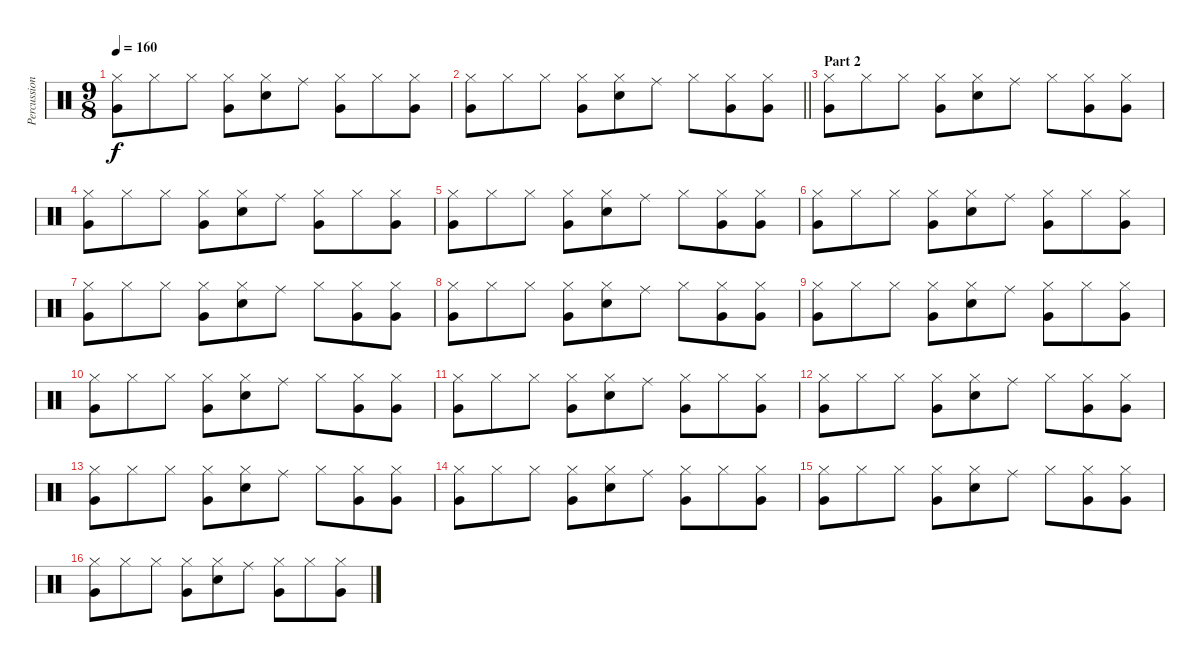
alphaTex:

\track ("Percussions" "Percussion") {instrument percussion}
\staff {score}
\articulation defaults
\ts (9 8)
\tempo 160
\clef neutral
\ks c
("Hi-Hat (closed)" "Very Low Tom (hit)").8{dy f} "Hi-Hat (closed)".8 "Hi-Hat (closed)".8 ("Hi-Hat (closed)" "Very Low Tom (hit)").8 ("Hi-Hat (closed)" "Snare (hit) 2").8 "Ride (middle)".8 ("Hi-Hat (closed)" "Very Low Tom (hit)").8 "Hi-Hat (closed)".8 ("Hi-Hat (closed)" "Very Low Tom (hit)").8 |
\barLineRight lightlight
("Hi-Hat (closed)" "Very Low Tom (hit)").8 "Hi-Hat (closed)".8 "Hi-Hat (closed)".8 ("Hi-Hat (closed)" "Very Low Tom (hit)").8 ("Hi-Hat (closed)" "Snare (hit) 2").8 "Ride (middle)".8 "Hi-Hat (closed)".8 ("Hi-Hat (closed)" "Very Low Tom (hit)").8 ("Hi-Hat (closed)" "Very Low Tom (hit)").8 |
\section ("" "Part 2")
("Hi-Hat (closed)" "Very Low Tom (hit)").8 "Hi-Hat (closed)".8 "Hi-Hat (closed)".8 ("Hi-Hat (closed)" "Very Low Tom (hit)").8 ("Hi-Hat (closed)" "Snare (hit) 2").8 "Ride (middle)".8 "Hi-Hat (closed)".8 ("Hi-Hat (closed)" "Very Low Tom (hit)").8 ("Hi-Hat (closed)" "Very Low Tom (hit)").8 |
("Hi-Hat (closed)" "Very Low Tom (hit)").8 "Hi-Hat (closed)".8 "Hi-Hat (closed)".8 ("Hi-Hat (closed)" "Very Low Tom (hit)").8 ("Hi-Hat (closed)" "Snare (hit) 2").8 "Ride (middle)".8 ("Hi-Hat (closed)" "Very Low Tom (hit)").8 "Hi-Hat (closed)".8 ("Hi-Hat (closed)" "Very Low Tom (hit)").8 |
("Hi-Hat (closed)" "Very Low Tom (hit)").8 "Hi-Hat (closed)".8 "Hi-Hat (closed)".8 ("Hi-Hat (closed)" "Very Low Tom (hit)").8 ("Hi-Hat (closed)" "Snare (hit) 2").8 "Ride (middle)".8 "Hi-Hat (closed)".8 ("Hi-Hat (closed)" "Very Low Tom (hit)").8 ("Hi-Hat (closed)" "Very Low Tom (hit)").8 |
("Hi-Hat (closed)" "Very Low Tom (hit)").8 "Hi-Hat (closed)".8 "Hi-Hat (closed)".8 ("Hi-Hat (closed)" "Very Low Tom (hit)").8 ("Hi-Hat (closed)" "Snare (hit) 2").8 "Ride (middle)".8 ("Hi-Hat (closed)" "Very Low Tom (hit)").8 "Hi-Hat (closed)".8 ("Hi-Hat (closed)" "Very Low Tom (hit)").8 |
("Hi-Hat (closed)" "Very Low Tom (hit)").8 "Hi-Hat (closed)".8 "Hi-Hat (closed)".8 ("Hi-Hat (closed)" "Very Low Tom (hit)").8 ("Hi-Hat (closed)" "Snare (hit) 2").8 "Ride (middle)".8 "Hi-Hat (closed)".8 ("Hi-Hat (closed)" "Very Low Tom (hit)").8 ("Hi-Hat (closed)" "Very Low Tom (hit)").8 |
("Hi-Hat (closed)" "Very Low Tom (hit)").8 "Hi-Hat (closed)".8 "Hi-Hat (closed)".8 ("Hi-Hat (closed)" "Very Low Tom (hit)").8 ("Hi-Hat (closed)" "Snare (hit) 2").8 "Ride (middle)".8 "Hi-Hat (closed)".8 ("Hi-Hat (closed)" "Very Low Tom (hit)").8 ("Hi-Hat (closed)" "Very Low Tom (hit)").8 |
("Hi-Hat (closed)" "Very Low Tom (hit)").8 "Hi-Hat (closed)".8 "Hi-Hat (closed)".8 ("Hi-Hat (closed)" "Very Low Tom (hit)").8 ("Hi-Hat (closed)" "Snare (hit) 2").8 "Ride (middle)".8 ("Hi-Hat (closed)" "Very Low Tom (hit)").8 "Hi-Hat (closed)".8 ("Hi-Hat (closed)" "Very Low Tom (hit)").8 |
("Hi-Hat (closed)" "Very Low Tom (hit)").8 "Hi-Hat (closed)".8 "Hi-Hat (closed)".8 ("Hi-Hat (closed)" "Very Low Tom (hit)").8 ("Hi-Hat (closed)" "Snare (hit) 2").8 "Ride (middle)".8 "Hi-Hat (closed)".8 ("Hi-Hat (closed)" "Very Low Tom (hit)").8 ("Hi-Hat (closed)" "Very Low Tom (hit)").8 |
("Hi-Hat (closed)" "Very Low Tom (hit)").8 "Hi-Hat (closed)".8 "Hi-Hat (closed)".8 ("Hi-Hat (closed)" "Very Low Tom (hit)").8 ("Hi-Hat (closed)" "Snare (hit) 2").8 "Ride (middle)".8 ("Hi-Hat (closed)" "Very Low Tom (hit)").8 "Hi-Hat (closed)".8 ("Hi-Hat (closed)" "Very Low Tom (hit)").8 |
("Hi-Hat (closed)" "Very Low Tom (hit)").8 "Hi-Hat (closed)".8 "Hi-Hat (closed)".8 ("Hi-Hat (closed)" "Very Low Tom (hit)").8 ("Hi-Hat (closed)" "Snare (hit) 2").8 "Ride (middle)".8 "Hi-Hat (closed)".8 ("Hi-Hat (closed)" "Very Low Tom (hit)").8 ("Hi-Hat (closed)" "Very Low Tom (hit)").8 |
("Hi-Hat (closed)" "Very Low Tom (hit)").8 "Hi-Hat (closed)".8 "Hi-Hat (closed)".8 ("Hi-Hat (closed)" "Very Low Tom (hit)").8 ("Hi-Hat (closed)" "Snare (hit) 2").8 "Ride (middle)".8 "Hi-Hat (closed)".8 ("Hi-Hat (closed)" "Very Low Tom (hit)").8 ("Hi-Hat (closed)" "Very Low Tom (hit)").8 |
("Hi-Hat (closed)" "Very Low Tom (hit)").8 "Hi-Hat (closed)".8 "Hi-Hat (closed)".8 ("Hi-Hat (closed)" "Very Low Tom (hit)").8 ("Hi-Hat (closed)" "Snare (hit) 2").8 "Ride (middle)".8 ("Hi-Hat (closed)" "Very Low Tom (hit)").8 "Hi-Hat (closed)".8 ("Hi-Hat (closed)" "Very Low Tom (hit)").8 |
("Hi-Hat (closed)" "Very Low Tom (hit)").8 "Hi-Hat (closed)".8 "Hi-Hat (closed)".8 ("Hi-Hat (closed)" "Very Low Tom (hit)").8 ("Hi-Hat (closed)" "Snare (hit) 2").8 "Ride (middle)".8 "Hi-Hat (closed)".8 ("Hi-Hat (closed)" "Very Low Tom (hit)").8 ("Hi-Hat (closed)" "Very Low Tom (hit)").8 |
("Hi-Hat (closed)" "Very Low Tom (hit)").8 "Hi-Hat (closed)".8 "Hi-Hat (closed)".8 ("Hi-Hat (closed)" "Very Low Tom (hit)").8 ("Hi-Hat (closed)" "Snare (hit) 2").8 "Ride (middle)".8 ("Hi-Hat (closed)" "Very Low Tom (hit)").8 "Hi-Hat (closed)".8 ("Hi-Hat (closed)" "Very Low Tom (hit)").8
